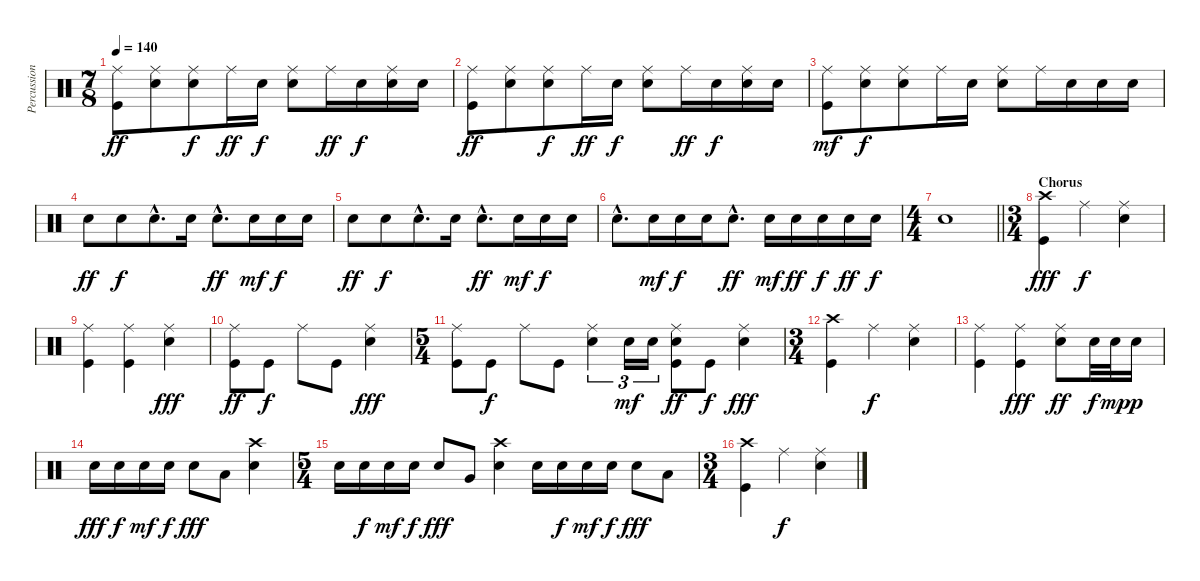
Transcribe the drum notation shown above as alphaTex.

\track ("Percussion" "Percussion") {instrument percussion}
\staff {score}
\articulation defaults
\ts (7 8)
\tempo 140
\clef neutral
\ks c
("Ride (middle)" "Kick (hit)").8{dy ff} ("Ride (middle)" "Electric Snare (hit)").8 ("Ride (middle)" "Electric Snare (hit)").8{dy f} "Ride (middle)".16{dy ff} "Electric Snare (hit)".16{dy f} ("Ride (middle)" "Electric Snare (hit)").8 "Ride (middle)".16{dy ff} "Electric Snare (hit)".16{dy f} ("Ride (middle)" "Electric Snare (hit)").16 "Electric Snare (hit)".16 |
("Ride (middle)" "Kick (hit)").8{dy ff} ("Ride (middle)" "Electric Snare (hit)").8 ("Ride (middle)" "Electric Snare (hit)").8{dy f} "Ride (middle)".16{dy ff} "Electric Snare (hit)".16{dy f} ("Ride (middle)" "Electric Snare (hit)").8 "Ride (middle)".16{dy ff} "Electric Snare (hit)".16{dy f} ("Ride (middle)" "Electric Snare (hit)").16 "Electric Snare (hit)".16 |
("Ride (middle)" "Kick (hit)").8{dy mf} ("Ride (middle)" "Electric Snare (hit)").8{dy f} ("Ride (middle)" "Electric Snare (hit)").8 "Ride (middle)".16 "Electric Snare (hit)".16 ("Ride (middle)" "Electric Snare (hit)").8 "Ride (middle)".16 "Electric Snare (hit)".16 "Electric Snare (hit)".16 "Electric Snare (hit)".16 |
"Electric Snare (hit)".8{dy ff} "Electric Snare (hit)".8{dy f} "Electric Snare (hit)"{hac}.8{d} "Electric Snare (hit)".16 "Electric Snare (hit)"{hac}.8{d dy ff} "Electric Snare (hit)".16{dy mf} "Electric Snare (hit)".16{dy f} "Electric Snare (hit)".16 |
"Electric Snare (hit)".8{dy ff} "Electric Snare (hit)".8{dy f} "Electric Snare (hit)"{hac}.8{d} "Electric Snare (hit)".16 "Electric Snare (hit)"{hac}.8{d dy ff} "Electric Snare (hit)".16{dy mf} "Electric Snare (hit)".16{dy f} "Electric Snare (hit)".16 |
"Electric Snare (hit)"{hac}.8{d} "Electric Snare (hit)".16{dy mf} "Electric Snare (hit)".16{dy f} "Electric Snare (hit)".16 "Electric Snare (hit)"{hac}.8{d dy ff} "Electric Snare (hit)".16{dy mf} "Electric Snare (hit)".16{dy ff} "Electric Snare (hit)".16{dy f} "Electric Snare (hit)".16{dy ff} "Electric Snare (hit)".16{dy f} |
\ts (4 4)
\barLineRight lightlight "Electric Snare (hit)".1
|
\ts (3 4)
\section ("" "Chorus")
("Crash high (hit)" "Kick (hit)").4{dy fff} "Ride (middle)".4{dy f} ("Ride (middle)" "Electric Snare (hit)").4 |
("Ride (middle)" "Kick (hit)").4 ("Ride (middle)" "Kick (hit)").4 ("Ride (middle)" "Electric Snare (hit)").4{dy fff} |
("Ride (middle)" "Kick (hit)").8{dy ff} "Kick (hit)".8{dy f} "Ride (middle)".8 "Kick (hit)".8 ("Ride (middle)" "Electric Snare (hit)").4{dy fff} |
\ts (5 4)
("Ride (middle)" "Kick (hit)").8 "Kick (hit)".8{dy f} "Ride (middle)".8 "Kick (hit)".8 ("Ride (middle)" "Electric Snare (hit)").4{tu (3 2)} "Electric Snare (hit)".16{tu (3 2) dy mf} "Electric Snare (hit)".16{tu (3 2)} ("Ride (middle)" "Electric Snare (hit)" "Kick (hit)").8{dy ff} "Kick (hit)".8{dy f} ("Ride (middle)" "Electric Snare (hit)").4{dy fff} |
\ts (3 4)
("Crash high (hit)" "Kick (hit)").4 "Ride (middle)".4{dy f} ("Ride (middle)" "Electric Snare (hit)").4 |
("Ride (middle)" "Kick (hit)").4 ("Ride (middle)" "Kick (hit)").4{dy fff} ("Ride (middle)" "Electric Snare (hit)").8{dy ff} "Electric Snare (hit)".32{dy f} "Electric Snare (hit)".32{dy mp} "Electric Snare (hit)".16{dy p} |
"Electric Snare (hit)".16{dy fff} "Electric Snare (hit)".16{dy f} "Electric Snare (hit)".16{dy mf} "Electric Snare (hit)".16{dy f} "Electric Snare (hit)".8{dy fff} "Low Tom (hit)".8 ("Crash high (hit)" "Electric Snare (hit)").4 |
\ts (5 4)
"Electric Snare (hit)".16 "Electric Snare (hit)".16{dy f} "Electric Snare (hit)".16{dy mf} "Electric Snare (hit)".16{dy f} "Electric Snare (hit)".8{dy fff} "Very Low Tom (hit)".8 ("Crash high (hit)" "Electric Snare (hit)").4 "Electric Snare (hit)".16 "Electric Snare (hit)".16{dy f} "Electric Snare (hit)".16{dy mf} "Electric Snare (hit)".16{dy f} "Electric Snare (hit)".8{dy fff} "Low Floor Tom (hit)".8 |
\ts (3 4)
("Crash high (hit)" "Kick (hit)").4 "Ride (middle)".4{dy f} ("Ride (middle)" "Electric Snare (hit)").4
